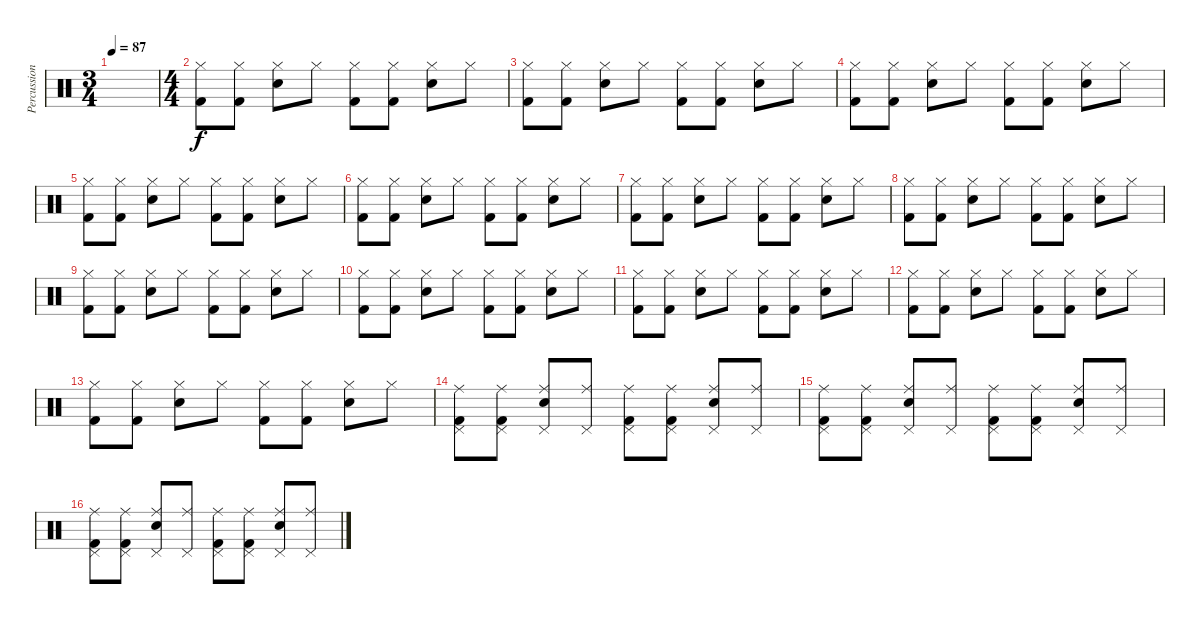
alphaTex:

\track ("Percussion" "Percussion") {instrument percussion}
\staff {score}
\articulation defaults
\ts (3 4)
\tempo 87
\clef neutral
\ks c
|
\ts (4 4)
("Hi-Hat (closed)" "Kick (hit) 2").8 ("Hi-Hat (closed)" "Kick (hit) 2").8 ("Hi-Hat (closed)" "Electric Snare (hit)").8 "Hi-Hat (closed)".8 ("Hi-Hat (closed)" "Kick (hit) 2").8 ("Hi-Hat (closed)" "Kick (hit) 2").8 ("Hi-Hat (closed)" "Electric Snare (hit)").8 "Hi-Hat (closed)".8 |
("Hi-Hat (closed)" "Kick (hit) 2").8 ("Hi-Hat (closed)" "Kick (hit) 2").8 ("Hi-Hat (closed)" "Electric Snare (hit)").8 "Hi-Hat (closed)".8 ("Hi-Hat (closed)" "Kick (hit) 2").8 ("Hi-Hat (closed)" "Kick (hit) 2").8 ("Hi-Hat (closed)" "Electric Snare (hit)").8 "Hi-Hat (closed)".8 |
("Hi-Hat (closed)" "Kick (hit) 2").8 ("Hi-Hat (closed)" "Kick (hit) 2").8 ("Hi-Hat (closed)" "Electric Snare (hit)").8 "Hi-Hat (closed)".8 ("Hi-Hat (closed)" "Kick (hit) 2").8 ("Hi-Hat (closed)" "Kick (hit) 2").8 ("Hi-Hat (closed)" "Electric Snare (hit)").8 "Hi-Hat (closed)".8 |
("Hi-Hat (closed)" "Kick (hit) 2").8 ("Hi-Hat (closed)" "Kick (hit) 2").8 ("Hi-Hat (closed)" "Electric Snare (hit)").8 "Hi-Hat (closed)".8 ("Hi-Hat (closed)" "Kick (hit) 2").8 ("Hi-Hat (closed)" "Kick (hit) 2").8 ("Hi-Hat (closed)" "Electric Snare (hit)").8 "Hi-Hat (closed)".8 |
("Hi-Hat (closed)" "Kick (hit) 2").8 ("Hi-Hat (closed)" "Kick (hit) 2").8 ("Hi-Hat (closed)" "Electric Snare (hit)").8 "Hi-Hat (closed)".8 ("Hi-Hat (closed)" "Kick (hit) 2").8 ("Hi-Hat (closed)" "Kick (hit) 2").8 ("Hi-Hat (closed)" "Electric Snare (hit)").8 "Hi-Hat (closed)".8 |
("Hi-Hat (closed)" "Kick (hit) 2").8 ("Hi-Hat (closed)" "Kick (hit) 2").8 ("Hi-Hat (closed)" "Electric Snare (hit)").8 "Hi-Hat (closed)".8 ("Hi-Hat (closed)" "Kick (hit) 2").8 ("Hi-Hat (closed)" "Kick (hit) 2").8 ("Hi-Hat (closed)" "Electric Snare (hit)").8 "Hi-Hat (closed)".8 |
("Hi-Hat (closed)" "Kick (hit) 2").8 ("Hi-Hat (closed)" "Kick (hit) 2").8 ("Hi-Hat (closed)" "Electric Snare (hit)").8 "Hi-Hat (closed)".8 ("Hi-Hat (closed)" "Kick (hit) 2").8 ("Hi-Hat (closed)" "Kick (hit) 2").8 ("Hi-Hat (closed)" "Electric Snare (hit)").8 "Hi-Hat (closed)".8 |
("Hi-Hat (closed)" "Kick (hit) 2").8 ("Hi-Hat (closed)" "Kick (hit) 2").8 ("Hi-Hat (closed)" "Electric Snare (hit)").8 "Hi-Hat (closed)".8 ("Hi-Hat (closed)" "Kick (hit) 2").8 ("Hi-Hat (closed)" "Kick (hit) 2").8 ("Hi-Hat (closed)" "Electric Snare (hit)").8 "Hi-Hat (closed)".8 |
("Hi-Hat (closed)" "Kick (hit) 2").8 ("Hi-Hat (closed)" "Kick (hit) 2").8 ("Hi-Hat (closed)" "Electric Snare (hit)").8 "Hi-Hat (closed)".8 ("Hi-Hat (closed)" "Kick (hit) 2").8 ("Hi-Hat (closed)" "Kick (hit) 2").8 ("Hi-Hat (closed)" "Electric Snare (hit)").8 "Hi-Hat (closed)".8 |
("Hi-Hat (closed)" "Kick (hit) 2").8 ("Hi-Hat (closed)" "Kick (hit) 2").8 ("Hi-Hat (closed)" "Electric Snare (hit)").8 "Hi-Hat (closed)".8 ("Hi-Hat (closed)" "Kick (hit) 2").8 ("Hi-Hat (closed)" "Kick (hit) 2").8 ("Hi-Hat (closed)" "Electric Snare (hit)").8 "Hi-Hat (closed)".8 |
("Hi-Hat (closed)" "Kick (hit) 2").8 ("Hi-Hat (closed)" "Kick (hit) 2").8 ("Hi-Hat (closed)" "Electric Snare (hit)").8 "Hi-Hat (closed)".8 ("Hi-Hat (closed)" "Kick (hit) 2").8 ("Hi-Hat (closed)" "Kick (hit) 2").8 ("Hi-Hat (closed)" "Electric Snare (hit)").8 "Hi-Hat (closed)".8 |
("Hi-Hat (closed)" "Kick (hit) 2").8 ("Hi-Hat (closed)" "Kick (hit) 2").8 ("Hi-Hat (closed)" "Electric Snare (hit)").8 "Hi-Hat (closed)".8 ("Hi-Hat (closed)" "Kick (hit) 2").8 ("Hi-Hat (closed)" "Kick (hit) 2").8 ("Hi-Hat (closed)" "Electric Snare (hit)").8 "Hi-Hat (closed)".8 |
("Pedal Hi-Hat (hit)" "Ride (middle)" "Kick (hit) 2").8 ("Pedal Hi-Hat (hit)" "Ride (middle)" "Kick (hit) 2").8 ("Pedal Hi-Hat (hit)" "Ride (middle)" "Electric Snare (hit)").8 ("Pedal Hi-Hat (hit)" "Ride (middle)").8 ("Pedal Hi-Hat (hit)" "Ride (middle)" "Kick (hit) 2").8 ("Pedal Hi-Hat (hit)" "Ride (middle)" "Kick (hit) 2").8 ("Pedal Hi-Hat (hit)" "Ride (middle)" "Electric Snare (hit)").8 ("Pedal Hi-Hat (hit)" "Ride (middle)").8 |
("Pedal Hi-Hat (hit)" "Ride (middle)" "Kick (hit) 2").8 ("Pedal Hi-Hat (hit)" "Ride (middle)" "Kick (hit) 2").8 ("Pedal Hi-Hat (hit)" "Ride (middle)" "Electric Snare (hit)").8 ("Pedal Hi-Hat (hit)" "Ride (middle)").8 ("Pedal Hi-Hat (hit)" "Ride (middle)" "Kick (hit) 2").8 ("Pedal Hi-Hat (hit)" "Ride (middle)" "Kick (hit) 2").8 ("Pedal Hi-Hat (hit)" "Ride (middle)" "Electric Snare (hit)").8 ("Pedal Hi-Hat (hit)" "Ride (middle)").8 |
("Pedal Hi-Hat (hit)" "Ride (middle)" "Kick (hit) 2").8 ("Pedal Hi-Hat (hit)" "Ride (middle)" "Kick (hit) 2").8 ("Pedal Hi-Hat (hit)" "Ride (middle)" "Electric Snare (hit)").8 ("Pedal Hi-Hat (hit)" "Ride (middle)").8 ("Pedal Hi-Hat (hit)" "Ride (middle)" "Kick (hit) 2").8 ("Pedal Hi-Hat (hit)" "Ride (middle)" "Kick (hit) 2").8 ("Pedal Hi-Hat (hit)" "Ride (middle)" "Electric Snare (hit)").8 ("Pedal Hi-Hat (hit)" "Ride (middle)").8
